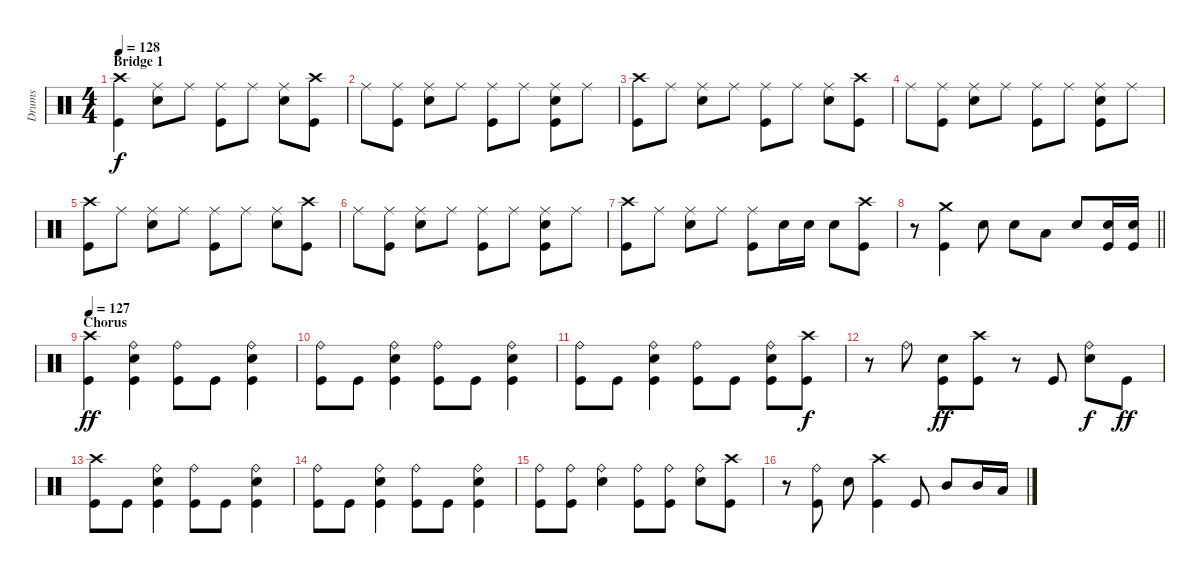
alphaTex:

\track ("Drums" "Drums") {instrument percussion}
\staff {score}
\articulation defaults
\ts (4 4)
\section ("" "Bridge 1")
\tempo 128
\clef neutral
\ks c
("Crash high (hit)" "Kick (hit)").4{dy f} ("Ride (middle)" "Electric Snare (hit)").8 "Ride (middle)".8 ("Ride (middle)" "Kick (hit)").8 "Ride (middle)".8 ("Ride (middle)" "Electric Snare (hit)").8 ("Crash high (hit)" "Kick (hit)").8 |
"Ride (middle)".8 ("Ride (middle)" "Kick (hit)").8 ("Ride (middle)" "Electric Snare (hit)").8 "Ride (middle)".8 ("Ride (middle)" "Kick (hit)").8 "Ride (middle)".8 ("Ride (middle)" "Electric Snare (hit)" "Kick (hit)").8 "Ride (middle)".8 |
("Crash high (hit)" "Kick (hit)").8 "Ride (middle)".8 ("Ride (middle)" "Electric Snare (hit)").8 "Ride (middle)".8 ("Ride (middle)" "Kick (hit)").8 "Ride (middle)".8 ("Ride (middle)" "Electric Snare (hit)").8 ("Crash high (hit)" "Kick (hit)").8 |
"Ride (middle)".8 ("Ride (middle)" "Kick (hit)").8 ("Ride (middle)" "Electric Snare (hit)").8 "Ride (middle)".8 ("Ride (middle)" "Kick (hit)").8 "Ride (middle)".8 ("Ride (middle)" "Electric Snare (hit)" "Kick (hit)").8 "Ride (middle)".8 |
("Crash high (hit)" "Kick (hit)").8 "Ride (middle)".8 ("Ride (middle)" "Electric Snare (hit)").8 "Ride (middle)".8 ("Ride (middle)" "Kick (hit)").8 "Ride (middle)".8 ("Ride (middle)" "Electric Snare (hit)").8 ("Crash high (hit)" "Kick (hit)").8 |
"Ride (middle)".8 ("Ride (middle)" "Kick (hit)").8 ("Ride (middle)" "Electric Snare (hit)").8 "Ride (middle)".8 ("Ride (middle)" "Kick (hit)").8 "Ride (middle)".8 ("Ride (middle)" "Electric Snare (hit)" "Kick (hit)").8 "Ride (middle)".8 |
("Crash high (hit)" "Kick (hit)").8 "Ride (middle)".8 ("Ride (middle)" "Electric Snare (hit)").8 "Ride (middle)".8 ("Ride (middle)" "Kick (hit)").8 "Electric Snare (hit)".16 "Electric Snare (hit)".16 "Electric Snare (hit)".8 ("Crash high (hit)" "Kick (hit)").8 |
\barLineRight lightlight
r.8 ("Crash medium (hit)" "Kick (hit)").4 "Electric Snare (hit)".8 "Electric Snare (hit)".8 "Low Tom (hit)".8 "Electric Snare (hit)".8 ("Electric Snare (hit)" "Kick (hit)").16 ("Electric Snare (hit)" "Kick (hit)").16 |
\section ("" "Chorus")
\tempo 127
("Crash high (hit)" "Kick (hit)").4{dy ff} ("Ride (bell)" "Electric Snare (hit)" "Kick (hit)").4 ("Ride (bell)" "Kick (hit)").8 "Kick (hit)".8 ("Ride (bell)" "Electric Snare (hit)" "Kick (hit)").4 |
("Ride (bell)" "Kick (hit)").8 "Kick (hit)".8 ("Ride (bell)" "Electric Snare (hit)" "Kick (hit)").4 ("Ride (bell)" "Kick (hit)").8 "Kick (hit)".8 ("Ride (bell)" "Electric Snare (hit)" "Kick (hit)").4 |
("Ride (bell)" "Kick (hit)").8 "Kick (hit)".8 ("Ride (bell)" "Electric Snare (hit)" "Kick (hit)").4 ("Ride (bell)" "Kick (hit)").8 "Kick (hit)".8 ("Ride (bell)" "Electric Snare (hit)" "Kick (hit)").8 ("Crash high (hit)" "Kick (hit)").8{dy f} |
r.8 "Ride (bell)".8 ("Electric Snare (hit)" "Kick (hit)").8{dy ff} ("Crash high (hit)" "Kick (hit)").8 r.8 "Kick (hit)".8 ("Ride (bell)" "Electric Snare (hit)").8{dy f} "Kick (hit)".8{dy ff} |
("Crash high (hit)" "Kick (hit)").8 "Kick (hit)".8 ("Ride (bell)" "Electric Snare (hit)" "Kick (hit)").4 ("Ride (bell)" "Kick (hit)").8 "Kick (hit)".8 ("Ride (bell)" "Electric Snare (hit)" "Kick (hit)").4 |
("Ride (bell)" "Kick (hit)").8 "Kick (hit)".8 ("Ride (bell)" "Electric Snare (hit)" "Kick (hit)").4 ("Ride (bell)" "Kick (hit)").8 "Kick (hit)".8 ("Ride (bell)" "Electric Snare (hit)" "Kick (hit)").4 |
("Ride (bell)" "Kick (hit)").8 ("Ride (bell)" "Kick (hit)").8 ("Ride (bell)" "Electric Snare (hit)").4 ("Ride (bell)" "Kick (hit)").8 ("Ride (bell)" "Kick (hit)").8 ("Ride (bell)" "Electric Snare (hit)").8 ("Crash high (hit)" "Kick (hit)").8 |
r.8 ("Ride (bell)" "Kick (hit)").8 "Electric Snare (hit)".8 ("Crash high (hit)" "Kick (hit)").4 "Kick (hit)".8 "Mid Tom (hit)".8 "Mid Tom (hit)".16 "Low Tom (hit)".16
